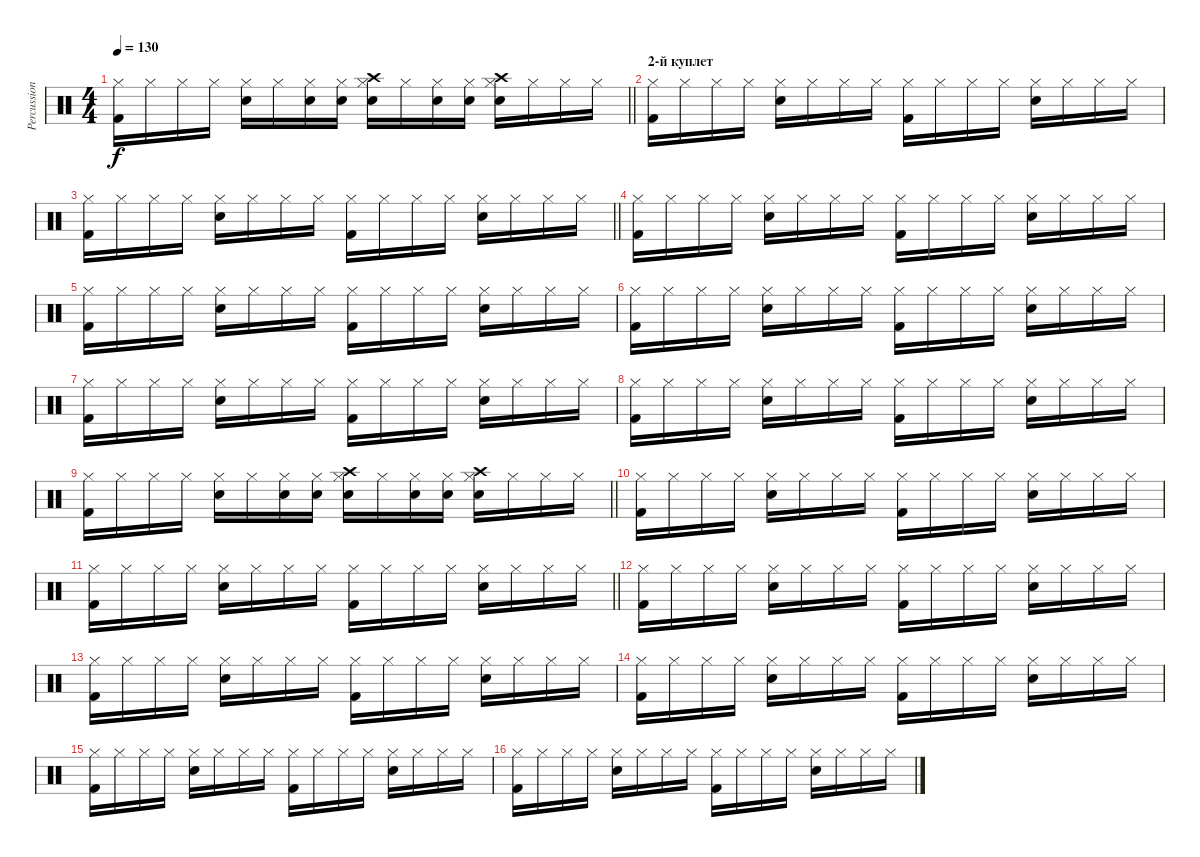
\track ("Percussion" "Percussion") {instrument percussion}
\staff {score}
\articulation defaults
\ts (4 4)
\tempo 130
\clef neutral
\barLineRight lightlight
\ks c
("Kick (hit) 2" "Hi-Hat (closed)").16{dy f} "Hi-Hat (closed)".16 "Hi-Hat (closed)".16 "Hi-Hat (closed)".16 ("Hi-Hat (closed)" "Snare (hit) 2").16 "Hi-Hat (closed)".16 ("Hi-Hat (closed)" "Snare (hit) 2").16 ("Hi-Hat (closed)" "Snare (hit) 2").16 ("Hi-Hat (closed)" "Snare (hit) 2" "Crash high (hit)").16 "Hi-Hat (closed)".16 ("Snare (hit) 2" "Hi-Hat (closed)").16 ("Hi-Hat (closed)" "Snare (hit) 2").16 ("Crash high (hit)" "Hi-Hat (closed)" "Snare (hit) 2").16 "Hi-Hat (closed)".16 "Hi-Hat (closed)".16 "Hi-Hat (closed)".16 |
\section ("" "2-й куплет")
("Kick (hit) 2" "Hi-Hat (closed)").16 "Hi-Hat (closed)".16 "Hi-Hat (closed)".16 "Hi-Hat (closed)".16 ("Snare (hit) 2" "Hi-Hat (closed)").16 "Hi-Hat (closed)".16 "Hi-Hat (closed)".16 "Hi-Hat (closed)".16 ("Hi-Hat (closed)" "Kick (hit) 2").16 "Hi-Hat (closed)".16 "Hi-Hat (closed)".16 "Hi-Hat (closed)".16 ("Snare (hit) 2" "Hi-Hat (closed)").16 "Hi-Hat (closed)".16 "Hi-Hat (closed)".16 "Hi-Hat (closed)".16 |
\barLineRight lightlight
("Hi-Hat (closed)" "Kick (hit) 2").16 "Hi-Hat (closed)".16 "Hi-Hat (closed)".16 "Hi-Hat (closed)".16 ("Snare (hit) 2" "Hi-Hat (closed)").16 "Hi-Hat (closed)".16 "Hi-Hat (closed)".16 "Hi-Hat (closed)".16 ("Kick (hit) 2" "Hi-Hat (closed)").16 "Hi-Hat (closed)".16 "Hi-Hat (closed)".16 "Hi-Hat (closed)".16 ("Hi-Hat (closed)" "Snare (hit) 2").16 "Hi-Hat (closed)".16 "Hi-Hat (closed)".16 "Hi-Hat (closed)".16 |
("Kick (hit) 2" "Hi-Hat (closed)").16 "Hi-Hat (closed)".16 "Hi-Hat (closed)".16 "Hi-Hat (closed)".16 ("Hi-Hat (closed)" "Snare (hit) 2").16 "Hi-Hat (closed)".16 "Hi-Hat (closed)".16 "Hi-Hat (closed)".16 ("Kick (hit) 2" "Hi-Hat (closed)").16 "Hi-Hat (closed)".16 "Hi-Hat (closed)".16 "Hi-Hat (closed)".16 ("Snare (hit) 2" "Hi-Hat (closed)").16 "Hi-Hat (closed)".16 "Hi-Hat (closed)".16 "Hi-Hat (closed)".16 |
("Hi-Hat (closed)" "Kick (hit) 2").16 "Hi-Hat (closed)".16 "Hi-Hat (closed)".16 "Hi-Hat (closed)".16 ("Snare (hit) 2" "Hi-Hat (closed)").16 "Hi-Hat (closed)".16 "Hi-Hat (closed)".16 "Hi-Hat (closed)".16 ("Hi-Hat (closed)" "Kick (hit) 2").16 "Hi-Hat (closed)".16 "Hi-Hat (closed)".16 "Hi-Hat (closed)".16 ("Snare (hit) 2" "Hi-Hat (closed)").16 "Hi-Hat (closed)".16 "Hi-Hat (closed)".16 "Hi-Hat (closed)".16 |
("Kick (hit) 2" "Hi-Hat (closed)").16 "Hi-Hat (closed)".16 "Hi-Hat (closed)".16 "Hi-Hat (closed)".16 ("Hi-Hat (closed)" "Snare (hit) 2").16 "Hi-Hat (closed)".16 "Hi-Hat (closed)".16 "Hi-Hat (closed)".16 ("Kick (hit) 2" "Hi-Hat (closed)").16 "Hi-Hat (closed)".16 "Hi-Hat (closed)".16 "Hi-Hat (closed)".16 ("Snare (hit) 2" "Hi-Hat (closed)").16 "Hi-Hat (closed)".16 "Hi-Hat (closed)".16 "Hi-Hat (closed)".16 |
("Kick (hit) 2" "Hi-Hat (closed)").16 "Hi-Hat (closed)".16 "Hi-Hat (closed)".16 "Hi-Hat (closed)".16 ("Hi-Hat (closed)" "Snare (hit) 2").16 "Hi-Hat (closed)".16 "Hi-Hat (closed)".16 "Hi-Hat (closed)".16 ("Kick (hit) 2" "Hi-Hat (closed)").16 "Hi-Hat (closed)".16 "Hi-Hat (closed)".16 "Hi-Hat (closed)".16 ("Snare (hit) 2" "Hi-Hat (closed)").16 "Hi-Hat (closed)".16 "Hi-Hat (closed)".16 "Hi-Hat (closed)".16 |
("Kick (hit) 2" "Hi-Hat (closed)").16 "Hi-Hat (closed)".16 "Hi-Hat (closed)".16 "Hi-Hat (closed)".16 ("Snare (hit) 2" "Hi-Hat (closed)").16 "Hi-Hat (closed)".16 "Hi-Hat (closed)".16 "Hi-Hat (closed)".16 ("Hi-Hat (closed)" "Kick (hit) 2").16 "Hi-Hat (closed)".16 "Hi-Hat (closed)".16 "Hi-Hat (closed)".16 ("Snare (hit) 2" "Hi-Hat (closed)").16 "Hi-Hat (closed)".16 "Hi-Hat (closed)".16 "Hi-Hat (closed)".16 |
\barLineRight lightlight
("Hi-Hat (closed)" "Kick (hit) 2").16 "Hi-Hat (closed)".16 "Hi-Hat (closed)".16 "Hi-Hat (closed)".16 ("Hi-Hat (closed)" "Snare (hit) 2").16 "Hi-Hat (closed)".16 ("Hi-Hat (closed)" "Snare (hit) 2").16 ("Hi-Hat (closed)" "Snare (hit) 2").16 ("Crash high (hit)" "Hi-Hat (closed)" "Snare (hit) 2").16 "Hi-Hat (closed)".16 ("Hi-Hat (closed)" "Snare (hit) 2").16 ("Snare (hit) 2" "Hi-Hat (closed)").16 ("Crash high (hit)" "Snare (hit) 2" "Hi-Hat (closed)").16 "Hi-Hat (closed)".16 "Hi-Hat (closed)".16 "Hi-Hat (closed)".16 |
("Kick (hit) 2" "Hi-Hat (closed)").16 "Hi-Hat (closed)".16 "Hi-Hat (closed)".16 "Hi-Hat (closed)".16 ("Snare (hit) 2" "Hi-Hat (closed)").16 "Hi-Hat (closed)".16 "Hi-Hat (closed)".16 "Hi-Hat (closed)".16 ("Kick (hit) 2" "Hi-Hat (closed)").16 "Hi-Hat (closed)".16 "Hi-Hat (closed)".16 "Hi-Hat (closed)".16 ("Snare (hit) 2" "Hi-Hat (closed)").16 "Hi-Hat (closed)".16 "Hi-Hat (closed)".16 "Hi-Hat (closed)".16 |
\barLineRight lightlight
("Kick (hit) 2" "Hi-Hat (closed)").16 "Hi-Hat (closed)".16 "Hi-Hat (closed)".16 "Hi-Hat (closed)".16 ("Snare (hit) 2" "Hi-Hat (closed)").16 "Hi-Hat (closed)".16 "Hi-Hat (closed)".16 "Hi-Hat (closed)".16 ("Kick (hit) 2" "Hi-Hat (closed)").16 "Hi-Hat (closed)".16 "Hi-Hat (closed)".16 "Hi-Hat (closed)".16 ("Snare (hit) 2" "Hi-Hat (closed)").16 "Hi-Hat (closed)".16 "Hi-Hat (closed)".16 "Hi-Hat (closed)".16 |
("Kick (hit) 2" "Hi-Hat (closed)").16 "Hi-Hat (closed)".16 "Hi-Hat (closed)".16 "Hi-Hat (closed)".16 ("Snare (hit) 2" "Hi-Hat (closed)").16 "Hi-Hat (closed)".16 "Hi-Hat (closed)".16 "Hi-Hat (closed)".16 ("Kick (hit) 2" "Hi-Hat (closed)").16 "Hi-Hat (closed)".16 "Hi-Hat (closed)".16 "Hi-Hat (closed)".16 ("Snare (hit) 2" "Hi-Hat (closed)").16 "Hi-Hat (closed)".16 "Hi-Hat (closed)".16 "Hi-Hat (closed)".16 |
("Kick (hit) 2" "Hi-Hat (closed)").16 "Hi-Hat (closed)".16 "Hi-Hat (closed)".16 "Hi-Hat (closed)".16 ("Snare (hit) 2" "Hi-Hat (closed)").16 "Hi-Hat (closed)".16 "Hi-Hat (closed)".16 "Hi-Hat (closed)".16 ("Kick (hit) 2" "Hi-Hat (closed)").16 "Hi-Hat (closed)".16 "Hi-Hat (closed)".16 "Hi-Hat (closed)".16 ("Snare (hit) 2" "Hi-Hat (closed)").16 "Hi-Hat (closed)".16 "Hi-Hat (closed)".16 "Hi-Hat (closed)".16 |
("Kick (hit) 2" "Hi-Hat (closed)").16 "Hi-Hat (closed)".16 "Hi-Hat (closed)".16 "Hi-Hat (closed)".16 ("Snare (hit) 2" "Hi-Hat (closed)").16 "Hi-Hat (closed)".16 "Hi-Hat (closed)".16 "Hi-Hat (closed)".16 ("Kick (hit) 2" "Hi-Hat (closed)").16 "Hi-Hat (closed)".16 "Hi-Hat (closed)".16 "Hi-Hat (closed)".16 ("Snare (hit) 2" "Hi-Hat (closed)").16 "Hi-Hat (closed)".16 "Hi-Hat (closed)".16 "Hi-Hat (closed)".16 |
("Kick (hit) 2" "Hi-Hat (closed)").16 "Hi-Hat (closed)".16 "Hi-Hat (closed)".16 "Hi-Hat (closed)".16 ("Snare (hit) 2" "Hi-Hat (closed)").16 "Hi-Hat (closed)".16 "Hi-Hat (closed)".16 "Hi-Hat (closed)".16 ("Kick (hit) 2" "Hi-Hat (closed)").16 "Hi-Hat (closed)".16 "Hi-Hat (closed)".16 "Hi-Hat (closed)".16 ("Snare (hit) 2" "Hi-Hat (closed)").16 "Hi-Hat (closed)".16 "Hi-Hat (closed)".16 "Hi-Hat (closed)".16 |
("Kick (hit) 2" "Hi-Hat (closed)").16 "Hi-Hat (closed)".16 "Hi-Hat (closed)".16 "Hi-Hat (closed)".16 ("Snare (hit) 2" "Hi-Hat (closed)").16 "Hi-Hat (closed)".16 "Hi-Hat (closed)".16 "Hi-Hat (closed)".16 ("Kick (hit) 2" "Hi-Hat (closed)").16 "Hi-Hat (closed)".16 "Hi-Hat (closed)".16 "Hi-Hat (closed)".16 ("Snare (hit) 2" "Hi-Hat (closed)").16 "Hi-Hat (closed)".16 "Hi-Hat (closed)".16 "Hi-Hat (closed)".16
